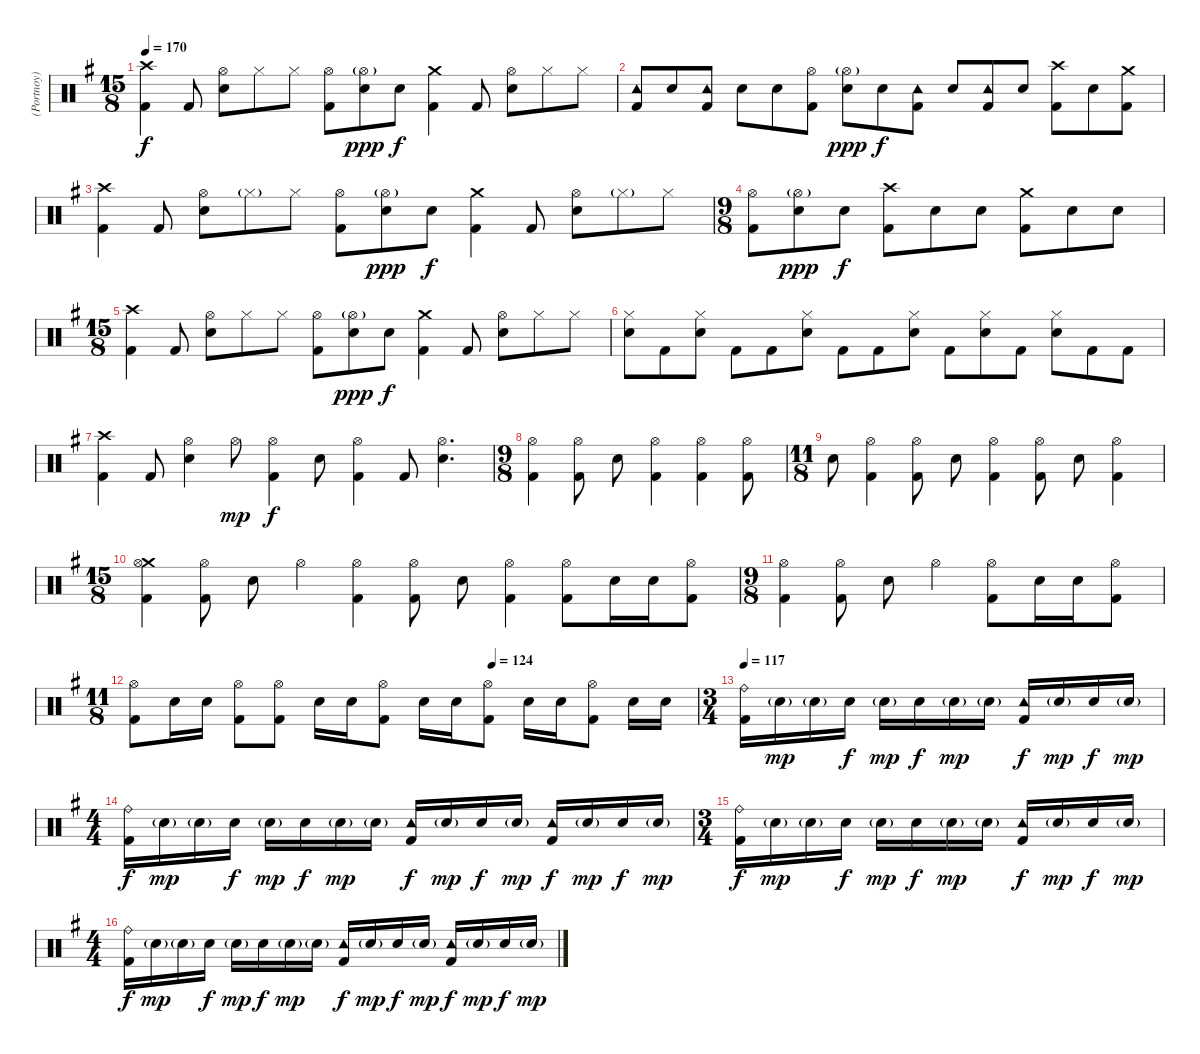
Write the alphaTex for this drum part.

\track ("(Portnoy) Drums" "(Portnoy) ") {instrument percussion}
\staff {score}
\articulation defaults
\ts (15 8)
\tempo 170
\clef neutral
\ks eminor
("Crash high (hit)" "Kick (hit) 2").4{dy f} "Kick (hit) 2".8 ("Hi-Hat (open)" "Snare (hit) 2").8 "Hi-Hat (closed)".8 "Hi-Hat (closed)".8 ("Hi-Hat (open)" "Kick (hit) 2").8 ("Hi-Hat (open)"{g} "Snare (hit) 2").8{dy ppp} "Snare (hit) 2".8{dy f} ("Crash medium (hit)" "Kick (hit) 2").4 "Kick (hit) 2".8 ("Hi-Hat (open)" "Snare (hit) 2").8 "Hi-Hat (closed)".8 "Hi-Hat (closed)".8 |
("Tambourine (hit)" "Kick (hit) 2").8 "Snare (hit) 2".8 ("Tambourine (hit)" "Kick (hit) 2").8 "Snare (hit) 2".8 "Snare (hit) 2".8 ("Hi-Hat (open)" "Kick (hit) 2").8 ("Hi-Hat (open)"{g} "Snare (hit) 2").8{dy ppp} "Snare (hit) 2".8{dy f} ("Tambourine (hit)" "Kick (hit) 2").8 "Snare (hit) 2".8 ("Tambourine (hit)" "Kick (hit) 2").8 "Snare (hit) 2".8 ("Crash high (hit)" "Kick (hit) 2").8 "Snare (hit) 2".8 ("Crash medium (hit)" "Kick (hit) 2").8 |
\ks g
("Crash high (hit)" "Kick (hit) 2").4 "Kick (hit) 2".8 ("Hi-Hat (open)" "Snare (hit) 2").8 "Hi-Hat (closed)"{g}.8 "Hi-Hat (closed)".8 ("Hi-Hat (open)" "Kick (hit) 2").8 ("Hi-Hat (open)"{g} "Snare (hit) 2").8{dy ppp} "Snare (hit) 2".8{dy f} ("Crash medium (hit)" "Kick (hit) 2").4 "Kick (hit) 2".8 ("Hi-Hat (open)" "Snare (hit) 2").8 "Hi-Hat (closed)"{g}.8 "Hi-Hat (closed)".8 |
\ts (9 8)
("Hi-Hat (open)" "Kick (hit) 2").8 ("Hi-Hat (open)"{g} "Snare (hit) 2").8{dy ppp} "Snare (hit) 2".8{dy f} ("Crash high (hit)" "Kick (hit) 2").8 "Snare (hit) 2".8 "Snare (hit) 2".8 ("Crash medium (hit)" "Kick (hit) 2").8 "Snare (hit) 2".8 "Snare (hit) 2".8 |
\ts (15 8)
\ks eminor
("Crash high (hit)" "Kick (hit) 2").4 "Kick (hit) 2".8 ("Hi-Hat (open)" "Snare (hit) 2").8 "Hi-Hat (closed)".8 "Hi-Hat (closed)".8 ("Hi-Hat (open)" "Kick (hit) 2").8 ("Hi-Hat (open)"{g} "Snare (hit) 2").8{dy ppp} "Snare (hit) 2".8{dy f} ("Crash medium (hit)" "Kick (hit) 2").4 "Kick (hit) 2".8 ("Hi-Hat (open)" "Snare (hit) 2").8 "Hi-Hat (closed)".8 "Hi-Hat (closed)".8 |
("Hi-Hat (closed)" "Snare (hit) 2").8 "Kick (hit) 2".8 ("Hi-Hat (closed)" "Snare (hit) 2").8 "Kick (hit) 2".8 "Kick (hit) 2".8 ("Hi-Hat (closed)" "Snare (hit) 2").8 "Kick (hit) 2".8 "Kick (hit) 2".8 ("Hi-Hat (closed)" "Snare (hit) 2").8 "Kick (hit) 2".8 ("Hi-Hat (closed)" "Snare (hit) 2").8 "Kick (hit) 2".8 ("Hi-Hat (closed)" "Snare (hit) 2").8 "Kick (hit) 2".8 "Kick (hit) 2".8 |
("Crash high (hit)" "Kick (hit) 2").4 "Kick (hit) 2".8 ("Hi-Hat (open)" "Snare (hit) 2").4 "Hi-Hat (open)".8{dy mp} ("Hi-Hat (open)" "Kick (hit) 2").4{dy f} "Snare (hit) 2".8 ("Hi-Hat (open)" "Kick (hit) 2").4 "Kick (hit) 2".8 ("Hi-Hat (open)" "Snare (hit) 2").4{d} |
\ts (9 8)
("Hi-Hat (open)" "Kick (hit) 2").4 ("Hi-Hat (open)" "Kick (hit) 2").8 "Snare (hit) 2".8 ("Hi-Hat (open)" "Kick (hit) 2").4 ("Hi-Hat (open)" "Kick (hit) 2").4 ("Hi-Hat (open)" "Kick (hit) 2").8 |
\ts (11 8)
"Snare (hit) 2".8 ("Hi-Hat (open)" "Kick (hit) 2").4 ("Hi-Hat (open)" "Kick (hit) 2").8 "Snare (hit) 2".8 ("Hi-Hat (open)" "Kick (hit) 2").4 ("Hi-Hat (open)" "Kick (hit) 2").8 "Snare (hit) 2".8 ("Hi-Hat (open)" "Kick (hit) 2").4 |
\ts (15 8)
("Crash medium (hit)" "Hi-Hat (open)" "Kick (hit) 2").4 ("Hi-Hat (open)" "Kick (hit) 2").8 "Snare (hit) 2".8 "Hi-Hat (open)".4 ("Hi-Hat (open)" "Kick (hit) 2").4 ("Hi-Hat (open)" "Kick (hit) 2").8 "Snare (hit) 2".8 ("Hi-Hat (open)" "Kick (hit) 2").4 ("Hi-Hat (open)" "Kick (hit) 2").8 "Snare (hit) 2".16 "Snare (hit) 2".16 ("Hi-Hat (open)" "Kick (hit) 2").8 |
\ts (9 8)
("Hi-Hat (open)" "Kick (hit) 2").4 ("Hi-Hat (open)" "Kick (hit) 2").8 "Snare (hit) 2".8 "Hi-Hat (open)".4 ("Hi-Hat (open)" "Kick (hit) 2").8 "Snare (hit) 2".16 "Snare (hit) 2".16 ("Hi-Hat (open)" "Kick (hit) 2").8 |
\ts (11 8)
\tempo (124 0.6363636363636364)
("Hi-Hat (open)" "Kick (hit) 2").8 "Snare (hit) 2".16 "Snare (hit) 2".16 ("Hi-Hat (open)" "Kick (hit) 2").8 ("Hi-Hat (open)" "Kick (hit) 2").8 "Snare (hit) 2".16 "Snare (hit) 2".16 ("Hi-Hat (open)" "Kick (hit) 2").8 "Snare (hit) 2".16 "Snare (hit) 2".16 ("Hi-Hat (open)" "Kick (hit) 2").8 "Snare (hit) 2".16 "Snare (hit) 2".16 ("Hi-Hat (open)" "Kick (hit) 2").8 "Snare (hit) 2".16 "Snare (hit) 2".16 |
\ts (3 4)
\tempo 117
("Ride (bell)" "Kick (hit) 2").16 "Snare (hit) 2"{g}.16{dy mp} "Snare (hit) 2"{g}.16 "Snare (hit) 2".16{dy f} "Snare (hit) 2"{g}.16{dy mp} "Snare (hit) 2".16{dy f} "Snare (hit) 2"{g}.16{dy mp} "Snare (hit) 2"{g}.16 ("Tambourine (hit)" "Kick (hit) 2").16{dy f} "Snare (hit) 2"{g}.16{dy mp} "Snare (hit) 2".16{dy f} "Snare (hit) 2"{g}.16{dy mp} |
\ts (4 4)
("Ride (bell)" "Kick (hit) 2").16{dy f} "Snare (hit) 2"{g}.16{dy mp} "Snare (hit) 2"{g}.16 "Snare (hit) 2".16{dy f} "Snare (hit) 2"{g}.16{dy mp} "Snare (hit) 2".16{dy f} "Snare (hit) 2"{g}.16{dy mp} "Snare (hit) 2"{g}.16 ("Tambourine (hit)" "Kick (hit) 2").16{dy f} "Snare (hit) 2"{g}.16{dy mp} "Snare (hit) 2".16{dy f} "Snare (hit) 2"{g}.16{dy mp} ("Tambourine (hit)" "Kick (hit) 2").16{dy f} "Snare (hit) 2"{g}.16{dy mp} "Snare (hit) 2".16{dy f} "Snare (hit) 2"{g}.16{dy mp} |
\ts (3 4)
("Ride (bell)" "Kick (hit) 2").16{dy f} "Snare (hit) 2"{g}.16{dy mp} "Snare (hit) 2"{g}.16 "Snare (hit) 2".16{dy f} "Snare (hit) 2"{g}.16{dy mp} "Snare (hit) 2".16{dy f} "Snare (hit) 2"{g}.16{dy mp} "Snare (hit) 2"{g}.16 ("Tambourine (hit)" "Kick (hit) 2").16{dy f} "Snare (hit) 2"{g}.16{dy mp} "Snare (hit) 2".16{dy f} "Snare (hit) 2"{g}.16{dy mp} |
\ts (4 4)
("Ride (bell)" "Kick (hit) 2").16{dy f} "Snare (hit) 2"{g}.16{dy mp} "Snare (hit) 2"{g}.16 "Snare (hit) 2".16{dy f} "Snare (hit) 2"{g}.16{dy mp} "Snare (hit) 2".16{dy f} "Snare (hit) 2"{g}.16{dy mp} "Snare (hit) 2"{g}.16 ("Tambourine (hit)" "Kick (hit) 2").16{dy f} "Snare (hit) 2"{g}.16{dy mp} "Snare (hit) 2".16{dy f} "Snare (hit) 2"{g}.16{dy mp} ("Tambourine (hit)" "Kick (hit) 2").16{dy f} "Snare (hit) 2"{g}.16{dy mp} "Snare (hit) 2".16{dy f} "Snare (hit) 2"{g}.16{dy mp}
